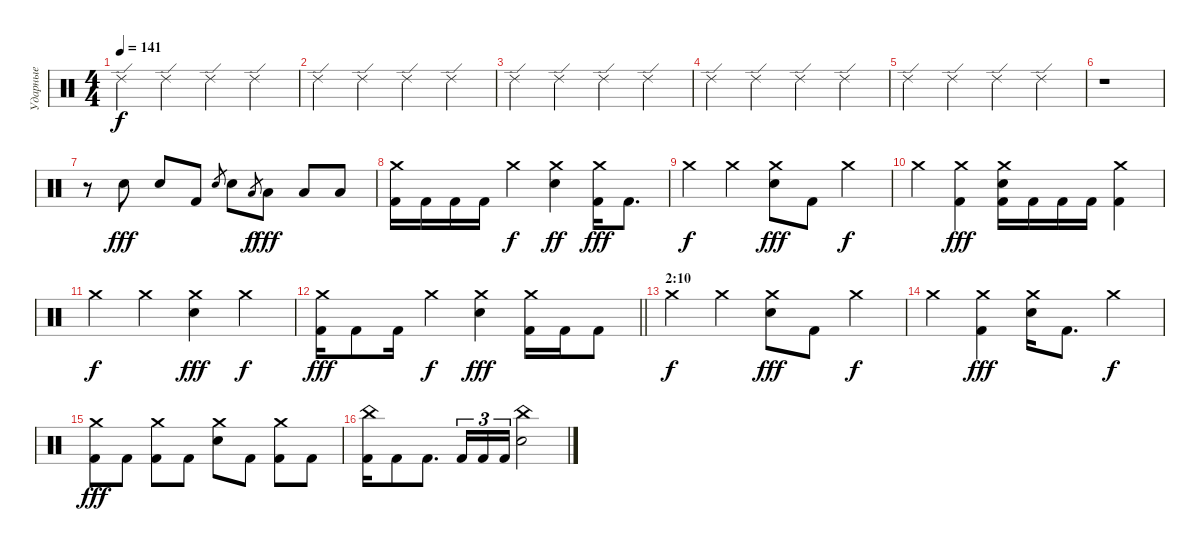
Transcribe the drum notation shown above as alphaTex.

\track ("Ударные" "Ударные") {instrument percussion}
\staff {score}
\articulation defaults
\ts (4 4)
\tempo 141
\clef neutral
\ks c "Ride (edge) 2".4{dy f} "Ride (edge) 2".4 "Ride (edge) 2".4 "Ride (edge) 2".4
|
"Ride (edge) 2".4 "Ride (edge) 2".4 "Ride (edge) 2".4 "Ride (edge) 2".4 |
"Ride (edge) 2".4 "Ride (edge) 2".4 "Ride (edge) 2".4 "Ride (edge) 2".4 |
"Ride (edge) 2".4 "Ride (edge) 2".4 "Ride (edge) 2".4 "Ride (edge) 2".4 |
"Ride (edge) 2".4 "Ride (edge) 2".4 "Ride (edge) 2".4 "Ride (edge) 2".4 |
r.1 |
r.8 "Electric Snare (hit)".8{dy fff} "Electric Snare (hit)".8 "Kick (hit) 2".8 "Electric Snare (hit)".8{gr} "Electric Snare (hit)".8 "Low Floor Tom (hit)".8{gr dy f} "Low Floor Tom (hit)".8{dy fff} "Low Floor Tom (hit)".8 "Low Floor Tom (hit)".8 |
("Crash medium (hit)" "Kick (hit) 2").16 "Kick (hit) 2".16 "Kick (hit) 2".16 "Kick (hit) 2".16 "Crash medium (hit)".4{dy f} ("Crash medium (hit)" "Electric Snare (hit)").4{dy ff} ("Crash medium (hit)" "Kick (hit) 2").16{dy fff} "Kick (hit) 2".8{d} |
"Crash medium (hit)".4{dy f} "Crash medium (hit)".4 ("Crash medium (hit)" "Electric Snare (hit)").8{dy fff} "Kick (hit) 2".8 "Crash medium (hit)".4{dy f} |
"Crash medium (hit)".4 ("Crash medium (hit)" "Kick (hit) 2").4{dy fff} ("Crash medium (hit)" "Electric Snare (hit)" "Kick (hit) 2").16 "Kick (hit) 2".16 "Kick (hit) 2".16 "Kick (hit) 2".16 ("Crash medium (hit)" "Kick (hit) 2").4 |
"Crash medium (hit)".4{dy f} "Crash medium (hit)".4 ("Crash medium (hit)" "Electric Snare (hit)").4{dy fff} "Crash medium (hit)".4{dy f} |
\barLineRight lightlight
("Crash medium (hit)" "Kick (hit) 2").16{dy fff} "Kick (hit) 2".8 "Kick (hit) 2".16 "Crash medium (hit)".4{dy f} ("Crash medium (hit)" "Electric Snare (hit)").4{dy fff} ("Crash medium (hit)" "Kick (hit) 2").16 "Kick (hit) 2".16 "Kick (hit) 2".8 |
\section ("" "2:10")
"Crash medium (hit)".4{dy f} "Crash medium (hit)".4 ("Crash medium (hit)" "Electric Snare (hit)").8{dy fff} "Kick (hit) 2".8 "Crash medium (hit)".4{dy f} |
"Crash medium (hit)".4 ("Crash medium (hit)" "Kick (hit) 2").4{dy fff} ("Crash medium (hit)" "Electric Snare (hit)").16 "Kick (hit) 2".8{d} "Crash medium (hit)".4{dy f} |
("Crash medium (hit)" "Kick (hit) 2").8{dy fff} "Kick (hit) 2".8 ("Crash medium (hit)" "Kick (hit) 2").8 "Kick (hit) 2".8 ("Crash medium (hit)" "Electric Snare (hit)").8 "Kick (hit) 2".8 ("Crash medium (hit)" "Kick (hit) 2").8 "Kick (hit) 2".8 |
("China (hit)" "Kick (hit) 2").16 "Kick (hit) 2".8 "Kick (hit) 2".8{d} "Kick (hit) 2".16{tu (3 2)} "Kick (hit) 2".16{tu (3 2)} "Kick (hit) 2".16{tu (3 2)} ("China (hit)" "Electric Snare (hit)").2
